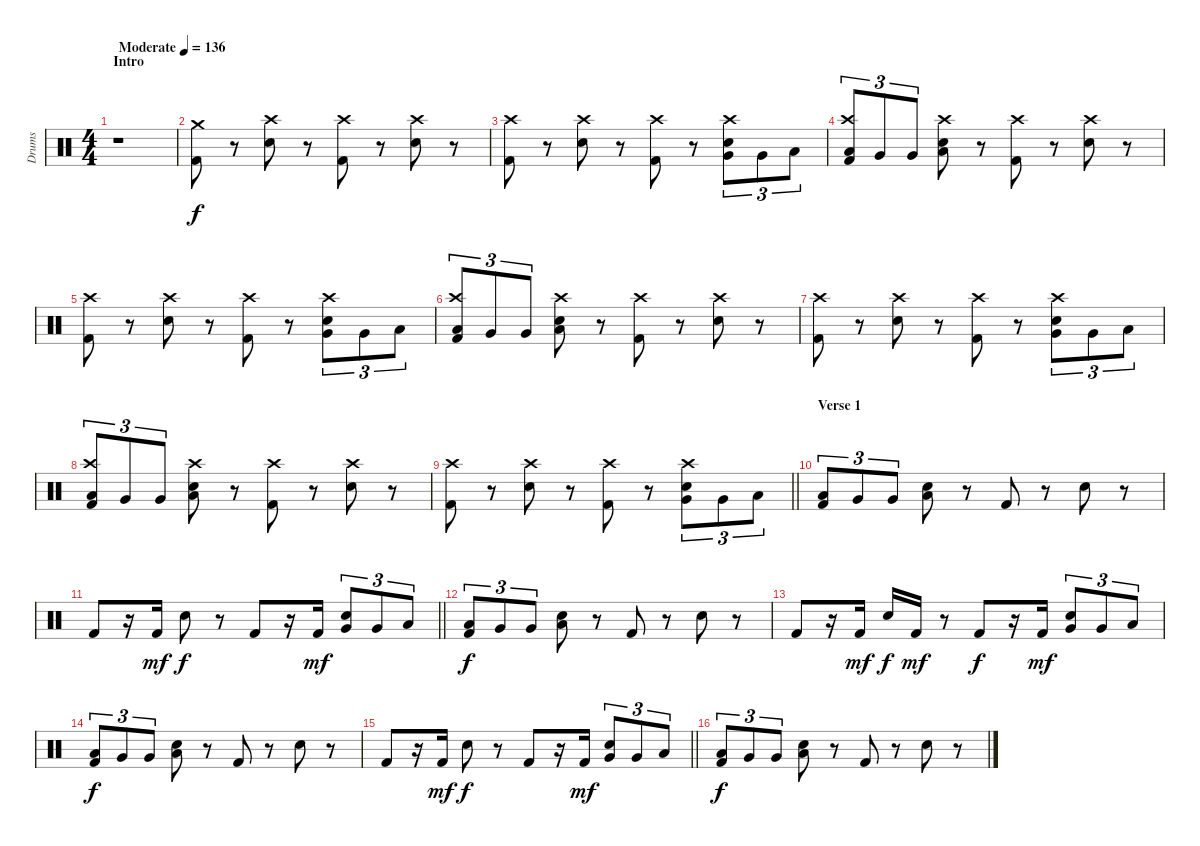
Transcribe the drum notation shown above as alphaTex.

\track ("Drums" "Drums") {instrument percussion}
\staff {score}
\articulation defaults
\ts (4 4)
\section ("" "Intro")
\tempo (136 "Moderate")
\clef neutral
\ks c
r.1{dy f} |
("Crash medium (hit)" "Kick (hit) 2").8 r.8 ("Crash high (hit)" "Electric Snare (hit)").8 r.8 ("Crash high (hit)" "Kick (hit) 2").8 r.8 ("Crash high (hit)" "Electric Snare (hit)").8 r.8 |
("Crash high (hit)" "Kick (hit) 2").8 r.8 ("Crash high (hit)" "Electric Snare (hit)").8 r.8 ("Crash high (hit)" "Kick (hit) 2").8 r.8 ("Crash high (hit)" "Electric Snare (hit)" "Very Low Tom (hit)").8{tu (3 2)} "Very Low Tom (hit)".8{tu (3 2)} "Low Floor Tom (hit)".8{tu (3 2)} |
("Crash high (hit)" "Low Floor Tom (hit)" "Kick (hit) 2").8{tu (3 2)} "Very Low Tom (hit)".8{tu (3 2)} "Very Low Tom (hit)".8{tu (3 2)} ("Crash high (hit)" "Electric Snare (hit)" "Low Tom (hit)").8 r.8 ("Crash high (hit)" "Kick (hit) 2").8 r.8 ("Crash high (hit)" "Electric Snare (hit)").8 r.8 |
("Crash high (hit)" "Kick (hit) 2").8 r.8 ("Crash high (hit)" "Electric Snare (hit)").8 r.8 ("Crash high (hit)" "Kick (hit) 2").8 r.8 ("Crash high (hit)" "Electric Snare (hit)" "Very Low Tom (hit)").8{tu (3 2)} "Very Low Tom (hit)".8{tu (3 2)} "Low Floor Tom (hit)".8{tu (3 2)} |
("Crash high (hit)" "Low Floor Tom (hit)" "Kick (hit) 2").8{tu (3 2)} "Very Low Tom (hit)".8{tu (3 2)} "Very Low Tom (hit)".8{tu (3 2)} ("Crash high (hit)" "Electric Snare (hit)" "Low Tom (hit)").8 r.8 ("Crash high (hit)" "Kick (hit) 2").8 r.8 ("Crash high (hit)" "Electric Snare (hit)").8 r.8 |
("Crash high (hit)" "Kick (hit) 2").8 r.8 ("Crash high (hit)" "Electric Snare (hit)").8 r.8 ("Crash high (hit)" "Kick (hit) 2").8 r.8 ("Crash high (hit)" "Electric Snare (hit)" "Very Low Tom (hit)").8{tu (3 2)} "Very Low Tom (hit)".8{tu (3 2)} "Low Floor Tom (hit)".8{tu (3 2)} |
("Crash high (hit)" "Low Floor Tom (hit)" "Kick (hit) 2").8{tu (3 2)} "Very Low Tom (hit)".8{tu (3 2)} "Very Low Tom (hit)".8{tu (3 2)} ("Crash high (hit)" "Electric Snare (hit)" "Low Tom (hit)").8 r.8 ("Crash high (hit)" "Kick (hit) 2").8 r.8 ("Crash high (hit)" "Electric Snare (hit)").8 r.8 |
\barLineRight lightlight
("Crash high (hit)" "Kick (hit) 2").8 r.8 ("Crash high (hit)" "Electric Snare (hit)").8 r.8 ("Crash high (hit)" "Kick (hit) 2").8 r.8 ("Crash high (hit)" "Electric Snare (hit)" "Very Low Tom (hit)").8{tu (3 2)} "Very Low Tom (hit)".8{tu (3 2)} "Low Floor Tom (hit)".8{tu (3 2)} |
\section ("" "Verse 1")
("Low Floor Tom (hit)" "Kick (hit) 2").8{tu (3 2)} "Very Low Tom (hit)".8{tu (3 2)} "Very Low Tom (hit)".8{tu (3 2)} ("Electric Snare (hit)" "Low Tom (hit)").8 r.8 "Kick (hit) 2".8 r.8 "Electric Snare (hit)".8 r.8 |
\barLineRight lightlight "Kick (hit) 2".8
r.16 "Kick (hit) 2".16{dy mf} "Electric Snare (hit)".8{dy f} r.8 "Kick (hit) 2".8 r.16 "Kick (hit) 2".16{dy mf} ("Electric Snare (hit)" "Very Low Tom (hit)").8{tu (3 2)} "Very Low Tom (hit)".8{tu (3 2)} "Low Floor Tom (hit)".8{tu (3 2)} |
("Low Floor Tom (hit)" "Kick (hit) 2").8{tu (3 2) dy f} "Very Low Tom (hit)".8{tu (3 2)} "Very Low Tom (hit)".8{tu (3 2)} ("Electric Snare (hit)" "Low Tom (hit)").8 r.8 "Kick (hit) 2".8 r.8 "Electric Snare (hit)".8 r.8 |
"Kick (hit) 2".8 r.16 "Kick (hit) 2".16{dy mf} "Electric Snare (hit)".16{dy f} "Kick (hit) 2".16{dy mf} r.8 "Kick (hit) 2".8{dy f} r.16 "Kick (hit) 2".16{dy mf} ("Electric Snare (hit)" "Very Low Tom (hit)").8{tu (3 2)} "Very Low Tom (hit)".8{tu (3 2)} "Low Floor Tom (hit)".8{tu (3 2)} |
("Low Floor Tom (hit)" "Kick (hit) 2").8{tu (3 2) dy f} "Very Low Tom (hit)".8{tu (3 2)} "Very Low Tom (hit)".8{tu (3 2)} ("Electric Snare (hit)" "Low Tom (hit)").8 r.8 "Kick (hit) 2".8 r.8 "Electric Snare (hit)".8 r.8 |
\barLineRight lightlight "Kick (hit) 2".8
r.16 "Kick (hit) 2".16{dy mf} "Electric Snare (hit)".8{dy f} r.8 "Kick (hit) 2".8 r.16 "Kick (hit) 2".16{dy mf} ("Electric Snare (hit)" "Very Low Tom (hit)").8{tu (3 2)} "Very Low Tom (hit)".8{tu (3 2)} "Low Floor Tom (hit)".8{tu (3 2)} |
("Low Floor Tom (hit)" "Kick (hit) 2").8{tu (3 2) dy f} "Very Low Tom (hit)".8{tu (3 2)} "Very Low Tom (hit)".8{tu (3 2)} ("Electric Snare (hit)" "Low Tom (hit)").8 r.8 "Kick (hit) 2".8 r.8 "Electric Snare (hit)".8 r.8
